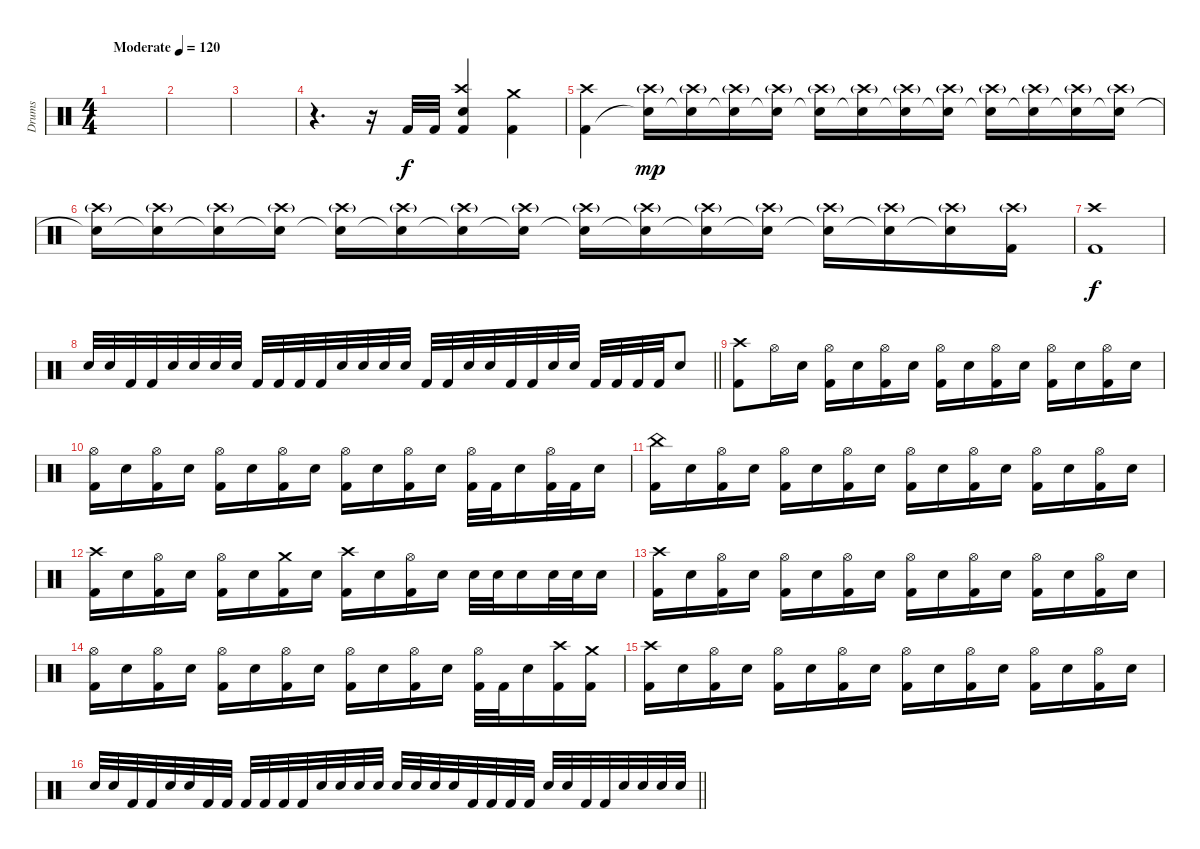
\track ("Drums" "Drums") {instrument percussion}
\staff
\articulation defaults
\ts (4 4)
\tempo (120 "Moderate")
\clef neutral
\ks c
|
|
|
r.4{d} r.16 "Kick (hit) 2".32 "Kick (hit) 2".32 ("Crash high (hit)" "Electric Snare (hit)" "Kick (hit) 2").4 ("Crash medium (hit)" "Kick (hit) 2").4 |
("Crash high (hit)" "Kick (hit) 2").4 ("Crash high (hit)"{g} "Snare (hit)"{t}).16{dy mp} ("Crash high (hit)"{g} "Snare (hit)"{t}).16 ("Crash high (hit)"{g} "Snare (hit)"{t}).16 ("Crash high (hit)"{g} "Snare (hit)"{t}).16 ("Crash high (hit)"{g} "Snare (hit)"{t}).16 ("Crash high (hit)"{g} "Snare (hit)"{t}).16 ("Crash high (hit)"{g} "Snare (hit)"{t}).16 ("Crash high (hit)"{g} "Snare (hit)"{t}).16 ("Crash high (hit)"{g} "Snare (hit)"{t}).16 ("Crash high (hit)"{g} "Snare (hit)"{t}).16 ("Crash high (hit)"{g} "Snare (hit)"{t}).16 ("Crash high (hit)"{g} "Snare (hit)"{t}).16 |
("Crash high (hit)"{g} "Snare (hit)"{t}).16 ("Crash high (hit)"{g} "Snare (hit)"{t}).16 ("Crash high (hit)"{g} "Snare (hit)"{t}).16 ("Crash high (hit)"{g} "Snare (hit)"{t}).16 ("Crash high (hit)"{g} "Snare (hit)"{t}).16 ("Crash high (hit)"{g} "Snare (hit)"{t}).16 ("Crash high (hit)"{g} "Snare (hit)"{t}).16 ("Crash high (hit)"{g} "Snare (hit)"{t}).16 ("Crash high (hit)"{g} "Snare (hit)"{t}).16 ("Crash high (hit)"{g} "Snare (hit)"{t}).16 ("Crash high (hit)"{g} "Snare (hit)"{t}).16 ("Crash high (hit)"{g} "Snare (hit)"{t}).16 ("Crash high (hit)"{g} "Snare (hit)"{t}).16 ("Crash high (hit)"{g} "Snare (hit)"{t}).16 ("Crash high (hit)"{g} "Snare (hit)"{t}).16 ("Crash high (hit)"{g} "Kick (hit) 2").16 |
("Crash high (hit)" "Kick (hit) 2").1{dy f} |
\barLineRight lightlight "Electric Snare (hit)".32 "Electric Snare (hit)".32 "Kick (hit) 2".32 "Kick (hit) 2".32 "Electric Snare (hit)".32 "Electric Snare (hit)".32 "Electric Snare (hit)".32 "Electric Snare (hit)".32 "Kick (hit) 2".32 "Kick (hit) 2".32 "Kick (hit) 2".32 "Kick (hit) 2".32 "Electric Snare (hit)".32 "Electric Snare (hit)".32 "Electric Snare (hit)".32 "Electric Snare (hit)".32 "Kick (hit) 2".32 "Kick (hit) 2".32 "Electric Snare (hit)".32 "Electric Snare (hit)".32 "Kick (hit) 2".32 "Kick (hit) 2".32 "Electric Snare (hit)".32 "Electric Snare (hit)".32 "Kick (hit) 2".32 "Kick (hit) 2".32 "Kick (hit) 2".32 "Kick (hit) 2".32 "Electric Snare (hit)".8
|
("Crash high (hit)" "Kick (hit) 2").8 "Hi-Hat (open)".16 "Electric Snare (hit)".16 ("Hi-Hat (open)" "Kick (hit) 2").16 "Electric Snare (hit)".16 ("Hi-Hat (open)" "Kick (hit) 2").16 "Electric Snare (hit)".16 ("Hi-Hat (open)" "Kick (hit) 2").16 "Electric Snare (hit)".16 ("Hi-Hat (open)" "Kick (hit) 2").16 "Electric Snare (hit)".16 ("Hi-Hat (open)" "Kick (hit) 2").16 "Electric Snare (hit)".16 ("Hi-Hat (open)" "Kick (hit) 2").16 "Electric Snare (hit)".16 |
("Hi-Hat (open)" "Kick (hit) 2").16 "Electric Snare (hit)".16 ("Hi-Hat (open)" "Kick (hit) 2").16 "Electric Snare (hit)".16 ("Hi-Hat (open)" "Kick (hit) 2").16 "Electric Snare (hit)".16 ("Hi-Hat (open)" "Kick (hit) 2").16 "Electric Snare (hit)".16 ("Hi-Hat (open)" "Kick (hit) 2").16 "Electric Snare (hit)".16 ("Hi-Hat (open)" "Kick (hit) 2").16 "Electric Snare (hit)".16 ("Hi-Hat (open)" "Kick (hit) 2").32 "Kick (hit) 2".32 "Electric Snare (hit)".16 ("Hi-Hat (open)" "Kick (hit) 2").32 "Kick (hit) 2".32 "Electric Snare (hit)".16 |
("China (hit)" "Kick (hit) 2").16 "Electric Snare (hit)".16 ("Hi-Hat (open)" "Kick (hit) 2").16 "Electric Snare (hit)".16 ("Hi-Hat (open)" "Kick (hit) 2").16 "Electric Snare (hit)".16 ("Hi-Hat (open)" "Kick (hit) 2").16 "Electric Snare (hit)".16 ("Hi-Hat (open)" "Kick (hit) 2").16 "Electric Snare (hit)".16 ("Hi-Hat (open)" "Kick (hit) 2").16 "Electric Snare (hit)".16 ("Hi-Hat (open)" "Kick (hit) 2").16 "Electric Snare (hit)".16 ("Hi-Hat (open)" "Kick (hit) 2").16 "Electric Snare (hit)".16 |
("Crash high (hit)" "Kick (hit) 2").16 "Electric Snare (hit)".16 ("Hi-Hat (open)" "Kick (hit) 2").16 "Electric Snare (hit)".16 ("Hi-Hat (open)" "Kick (hit) 2").16 "Electric Snare (hit)".16 ("Crash medium (hit)" "Kick (hit) 2").16 "Electric Snare (hit)".16 ("Crash high (hit)" "Kick (hit) 2").16 "Electric Snare (hit)".16 ("Hi-Hat (open)" "Kick (hit) 2").16 "Electric Snare (hit)".16 "Electric Snare (hit)".32 "Electric Snare (hit)".32 "Electric Snare (hit)".16 "Electric Snare (hit)".32 "Electric Snare (hit)".32 "Electric Snare (hit)".16 |
("Crash high (hit)" "Kick (hit) 2").16 "Electric Snare (hit)".16 ("Hi-Hat (open)" "Kick (hit) 2").16 "Electric Snare (hit)".16 ("Hi-Hat (open)" "Kick (hit) 2").16 "Electric Snare (hit)".16 ("Hi-Hat (open)" "Kick (hit) 2").16 "Electric Snare (hit)".16 ("Hi-Hat (open)" "Kick (hit) 2").16 "Electric Snare (hit)".16 ("Hi-Hat (open)" "Kick (hit) 2").16 "Electric Snare (hit)".16 ("Hi-Hat (open)" "Kick (hit) 2").16 "Electric Snare (hit)".16 ("Hi-Hat (open)" "Kick (hit) 2").16 "Electric Snare (hit)".16 |
("Hi-Hat (open)" "Kick (hit) 2").16 "Electric Snare (hit)".16 ("Hi-Hat (open)" "Kick (hit) 2").16 "Electric Snare (hit)".16 ("Hi-Hat (open)" "Kick (hit) 2").16 "Electric Snare (hit)".16 ("Hi-Hat (open)" "Kick (hit) 2").16 "Electric Snare (hit)".16 ("Hi-Hat (open)" "Kick (hit) 2").16 "Electric Snare (hit)".16 ("Hi-Hat (open)" "Kick (hit) 2").16 "Electric Snare (hit)".16 ("Hi-Hat (open)" "Kick (hit) 2").32 "Kick (hit) 2".32 "Electric Snare (hit)".16 ("Crash high (hit)" "Kick (hit) 2").16 ("Crash medium (hit)" "Kick (hit) 2").16 |
("Crash high (hit)" "Kick (hit) 2").16 "Electric Snare (hit)".16 ("Hi-Hat (open)" "Kick (hit) 2").16 "Electric Snare (hit)".16 ("Hi-Hat (open)" "Kick (hit) 2").16 "Electric Snare (hit)".16 ("Hi-Hat (open)" "Kick (hit) 2").16 "Electric Snare (hit)".16 ("Hi-Hat (open)" "Kick (hit) 2").16 "Electric Snare (hit)".16 ("Hi-Hat (open)" "Kick (hit) 2").16 "Electric Snare (hit)".16 ("Hi-Hat (open)" "Kick (hit) 2").16 "Electric Snare (hit)".16 ("Hi-Hat (open)" "Kick (hit) 2").16 "Electric Snare (hit)".16 |
\barLineRight lightlight "Electric Snare (hit)".32 "Electric Snare (hit)".32 "Kick (hit) 2".32 "Kick (hit) 2".32 "Electric Snare (hit)".32 "Electric Snare (hit)".32 "Kick (hit) 2".32 "Kick (hit) 2".32 "Kick (hit) 2".32 "Kick (hit) 2".32 "Kick (hit) 2".32 "Kick (hit) 2".32 "Electric Snare (hit)".32 "Electric Snare (hit)".32 "Electric Snare (hit)".32 "Electric Snare (hit)".32 "Electric Snare (hit)".32 "Electric Snare (hit)".32 "Electric Snare (hit)".32 "Electric Snare (hit)".32 "Kick (hit) 2".32 "Kick (hit) 2".32 "Kick (hit) 2".32 "Kick (hit) 2".32 "Electric Snare (hit)".32 "Electric Snare (hit)".32 "Kick (hit) 2".32 "Kick (hit) 2".32 "Electric Snare (hit)".32 "Electric Snare (hit)".32 "Electric Snare (hit)".32 "Electric Snare (hit)".32
